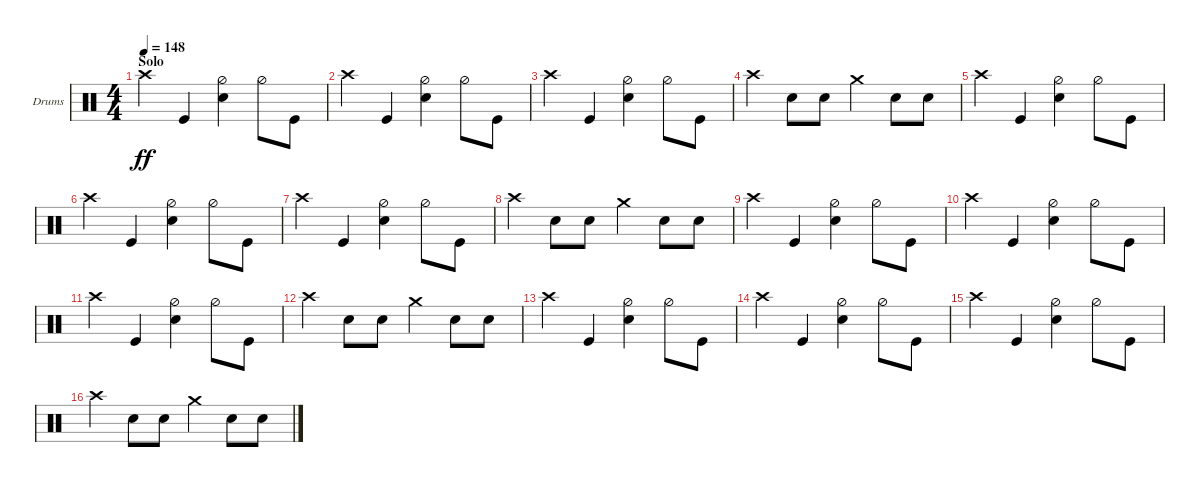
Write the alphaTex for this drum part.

\defaultSystemsLayout 4
\bracketExtendMode groupsimilarinstruments
\firstSystemTrackNameOrientation horizontal
\otherSystemsTrackNameOrientation horizontal
\track ("Drumkit" "Drums") {instrument percussion}
\staff {score}
\articulation defaults
\ts (4 4)
\section ("" "Solo")
\tempo 148
\clef neutral
\scale
0.472222
\ks c "Crash high (hit)".4{dy ff} "Kick (hit)".4
("Hi-Hat (half)" "Snare (hit) 2").4 "Hi-Hat (half)".8 "Kick (hit)".8 |
\scale
0.263889 "Crash high (hit)".4 "Kick (hit)".4 ("Hi-Hat (half)" "Snare (hit) 2").4 "Hi-Hat (half)".8 "Kick (hit)".8 |
\scale
0.263889 "Crash high (hit)".4 "Kick (hit)".4 ("Hi-Hat (half)" "Snare (hit) 2").4 "Hi-Hat (half)".8 "Kick (hit)".8 |
\scale
0.333333 "Crash high (hit)".4 "Snare (hit) 2".8 "Snare (hit) 2".8 "Crash medium (hit)".4 "Snare (hit) 2".8 "Snare (hit) 2".8 |
\scale
0.333333 "Crash high (hit)".4 "Kick (hit)".4 ("Hi-Hat (half)" "Snare (hit) 2").4 "Hi-Hat (half)".8 "Kick (hit)".8 |
\scale
0.333333 "Crash high (hit)".4 "Kick (hit)".4 ("Hi-Hat (half)" "Snare (hit) 2").4 "Hi-Hat (half)".8 "Kick (hit)".8 |
\scale
0.333333 "Crash high (hit)".4 "Kick (hit)".4 ("Hi-Hat (half)" "Snare (hit) 2").4 "Hi-Hat (half)".8 "Kick (hit)".8 |
\scale
0.333333 "Crash high (hit)".4 "Snare (hit) 2".8 "Snare (hit) 2".8 "Crash medium (hit)".4 "Snare (hit) 2".8 "Snare (hit) 2".8 |
\scale
0.333333 "Crash high (hit)".4 "Kick (hit)".4 ("Hi-Hat (half)" "Snare (hit) 2").4 "Hi-Hat (half)".8 "Kick (hit)".8 |
\scale
0.333333 "Crash high (hit)".4 "Kick (hit)".4 ("Hi-Hat (half)" "Snare (hit) 2").4 "Hi-Hat (half)".8 "Kick (hit)".8 |
\scale
0.333333 "Crash high (hit)".4 "Kick (hit)".4 ("Hi-Hat (half)" "Snare (hit) 2").4 "Hi-Hat (half)".8 "Kick (hit)".8 |
\scale
0.333333 "Crash high (hit)".4 "Snare (hit) 2".8 "Snare (hit) 2".8 "Crash medium (hit)".4 "Snare (hit) 2".8 "Snare (hit) 2".8 |
\scale
0.333333 "Crash high (hit)".4 "Kick (hit)".4 ("Hi-Hat (half)" "Snare (hit) 2").4 "Hi-Hat (half)".8 "Kick (hit)".8 |
\scale
0.333333 "Crash high (hit)".4 "Kick (hit)".4 ("Hi-Hat (half)" "Snare (hit) 2").4 "Hi-Hat (half)".8 "Kick (hit)".8 |
\scale
0.333333 "Crash high (hit)".4 "Kick (hit)".4 ("Hi-Hat (half)" "Snare (hit) 2").4 "Hi-Hat (half)".8 "Kick (hit)".8 |
\scale
0.333333 "Crash high (hit)".4 "Snare (hit) 2".8 "Snare (hit) 2".8 "Crash medium (hit)".4 "Snare (hit) 2".8 "Snare (hit) 2".8
